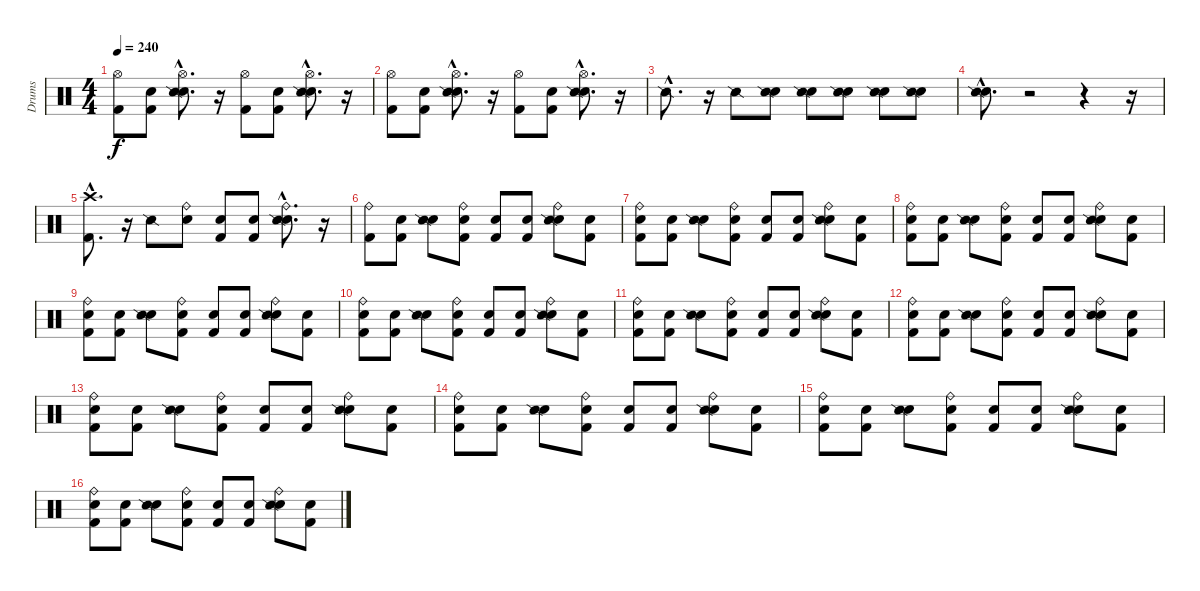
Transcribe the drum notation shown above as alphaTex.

\track ("Drums" "Drums") {instrument percussion}
\staff {score}
\articulation defaults
\ts (4 4)
\tempo 240
\clef neutral
\ks c
("Kick (hit) 2" "Hi-Hat (open)").8{dy f} ("Snare (hit)" "Kick (hit) 2").8 ("Snare (hit)"{hac} "Hi-Hat (open)"{hac} "Snare (side stick) 2"{hac}).8{d} r.16 ("Kick (hit) 2" "Hi-Hat (open)").8 ("Snare (hit)" "Kick (hit) 2").8 ("Snare (hit)"{hac} "Hi-Hat (open)"{hac} "Snare (side stick) 2"{hac}).8{d} r.16 |
("Kick (hit) 2" "Hi-Hat (open)").8 ("Snare (hit)" "Kick (hit) 2").8 ("Snare (hit)"{hac} "Hi-Hat (open)"{hac} "Snare (side stick) 2"{hac}).8{d} r.16 ("Kick (hit) 2" "Hi-Hat (open)").8 ("Snare (hit)" "Kick (hit) 2").8 ("Snare (hit)"{hac} "Hi-Hat (open)"{hac} "Snare (side stick) 2"{hac}).8{d} r.16 |
"Snare (side stick) 2"{hac}.8{d} r.16 "Snare (side stick) 2".8 ("Snare (hit)" "Snare (side stick) 2").8 ("Snare (hit)" "Snare (side stick) 2").8 ("Snare (hit)" "Snare (side stick) 2").8 ("Snare (hit)" "Snare (side stick) 2").8 ("Snare (hit)" "Snare (side stick) 2").8 |
("Snare (hit)"{hac} "Snare (side stick) 2"{hac}).8{d} r.2 r.4 r.16 |
("Kick (hit) 2"{hac} "Crash high (hit)"{hac}).8{d} r.16 "Snare (side stick) 2".8 ("Snare (hit)" "Ride (bell)").8 ("Snare (hit)" "Kick (hit) 2").8 ("Snare (hit)" "Kick (hit) 2").8 ("Snare (hit)"{hac} "Snare (side stick) 2"{hac} "Ride (bell)"{hac}).8{d} r.16 |
("Kick (hit) 2" "Ride (bell)").8 ("Snare (hit)" "Kick (hit) 2").8 ("Snare (hit)" "Snare (side stick) 2").8 ("Snare (hit)" "Kick (hit) 2" "Ride (bell)").8 ("Snare (hit)" "Kick (hit) 2").8 ("Snare (hit)" "Kick (hit) 2").8 ("Snare (hit)" "Ride (bell)" "Snare (side stick) 2").8 ("Snare (hit)" "Kick (hit) 2").8 |
("Snare (hit)" "Kick (hit) 2" "Ride (bell)").8 ("Snare (hit)" "Kick (hit) 2").8 ("Snare (hit)" "Snare (side stick) 2").8 ("Snare (hit)" "Kick (hit) 2" "Ride (bell)").8 ("Snare (hit)" "Kick (hit) 2").8 ("Snare (hit)" "Kick (hit) 2").8 ("Snare (hit)" "Ride (bell)" "Snare (side stick) 2").8 ("Snare (hit)" "Kick (hit) 2").8 |
("Snare (hit)" "Kick (hit) 2" "Ride (bell)").8 ("Snare (hit)" "Kick (hit) 2").8 ("Snare (hit)" "Snare (side stick) 2").8 ("Snare (hit)" "Kick (hit) 2" "Ride (bell)").8 ("Snare (hit)" "Kick (hit) 2").8 ("Snare (hit)" "Kick (hit) 2").8 ("Snare (hit)" "Ride (bell)" "Snare (side stick) 2").8 ("Snare (hit)" "Kick (hit) 2").8 |
("Snare (hit)" "Kick (hit) 2" "Ride (bell)").8 ("Snare (hit)" "Kick (hit) 2").8 ("Snare (hit)" "Snare (side stick) 2").8 ("Snare (hit)" "Kick (hit) 2" "Ride (bell)").8 ("Snare (hit)" "Kick (hit) 2").8 ("Snare (hit)" "Kick (hit) 2").8 ("Snare (hit)" "Ride (bell)" "Snare (side stick) 2").8 ("Snare (hit)" "Kick (hit) 2").8 |
("Snare (hit)" "Kick (hit) 2" "Ride (bell)").8 ("Snare (hit)" "Kick (hit) 2").8 ("Snare (hit)" "Snare (side stick) 2").8 ("Snare (hit)" "Kick (hit) 2" "Ride (bell)").8 ("Snare (hit)" "Kick (hit) 2").8 ("Snare (hit)" "Kick (hit) 2").8 ("Snare (hit)" "Ride (bell)" "Snare (side stick) 2").8 ("Snare (hit)" "Kick (hit) 2").8 |
("Snare (hit)" "Kick (hit) 2" "Ride (bell)").8 ("Snare (hit)" "Kick (hit) 2").8 ("Snare (hit)" "Snare (side stick) 2").8 ("Snare (hit)" "Kick (hit) 2" "Ride (bell)").8 ("Snare (hit)" "Kick (hit) 2").8 ("Snare (hit)" "Kick (hit) 2").8 ("Snare (hit)" "Ride (bell)" "Snare (side stick) 2").8 ("Snare (hit)" "Kick (hit) 2").8 |
("Snare (hit)" "Kick (hit) 2" "Ride (bell)").8 ("Snare (hit)" "Kick (hit) 2").8 ("Snare (hit)" "Snare (side stick) 2").8 ("Snare (hit)" "Kick (hit) 2" "Ride (bell)").8 ("Snare (hit)" "Kick (hit) 2").8 ("Snare (hit)" "Kick (hit) 2").8 ("Snare (hit)" "Ride (bell)" "Snare (side stick) 2").8 ("Snare (hit)" "Kick (hit) 2").8 |
("Snare (hit)" "Kick (hit) 2" "Ride (bell)").8 ("Snare (hit)" "Kick (hit) 2").8 ("Snare (hit)" "Snare (side stick) 2").8 ("Snare (hit)" "Kick (hit) 2" "Ride (bell)").8 ("Snare (hit)" "Kick (hit) 2").8 ("Snare (hit)" "Kick (hit) 2").8 ("Snare (hit)" "Ride (bell)" "Snare (side stick) 2").8 ("Snare (hit)" "Kick (hit) 2").8 |
("Snare (hit)" "Kick (hit) 2" "Ride (bell)").8 ("Snare (hit)" "Kick (hit) 2").8 ("Snare (hit)" "Snare (side stick) 2").8 ("Snare (hit)" "Kick (hit) 2" "Ride (bell)").8 ("Snare (hit)" "Kick (hit) 2").8 ("Snare (hit)" "Kick (hit) 2").8 ("Snare (hit)" "Ride (bell)" "Snare (side stick) 2").8 ("Snare (hit)" "Kick (hit) 2").8 |
("Snare (hit)" "Kick (hit) 2" "Ride (bell)").8 ("Snare (hit)" "Kick (hit) 2").8 ("Snare (hit)" "Snare (side stick) 2").8 ("Snare (hit)" "Kick (hit) 2" "Ride (bell)").8 ("Snare (hit)" "Kick (hit) 2").8 ("Snare (hit)" "Kick (hit) 2").8 ("Snare (hit)" "Ride (bell)" "Snare (side stick) 2").8 ("Snare (hit)" "Kick (hit) 2").8 |
("Snare (hit)" "Kick (hit) 2" "Ride (bell)").8 ("Snare (hit)" "Kick (hit) 2").8 ("Snare (hit)" "Snare (side stick) 2").8 ("Snare (hit)" "Kick (hit) 2" "Ride (bell)").8 ("Snare (hit)" "Kick (hit) 2").8 ("Snare (hit)" "Kick (hit) 2").8 ("Snare (hit)" "Ride (bell)" "Snare (side stick) 2").8 ("Snare (hit)" "Kick (hit) 2").8
